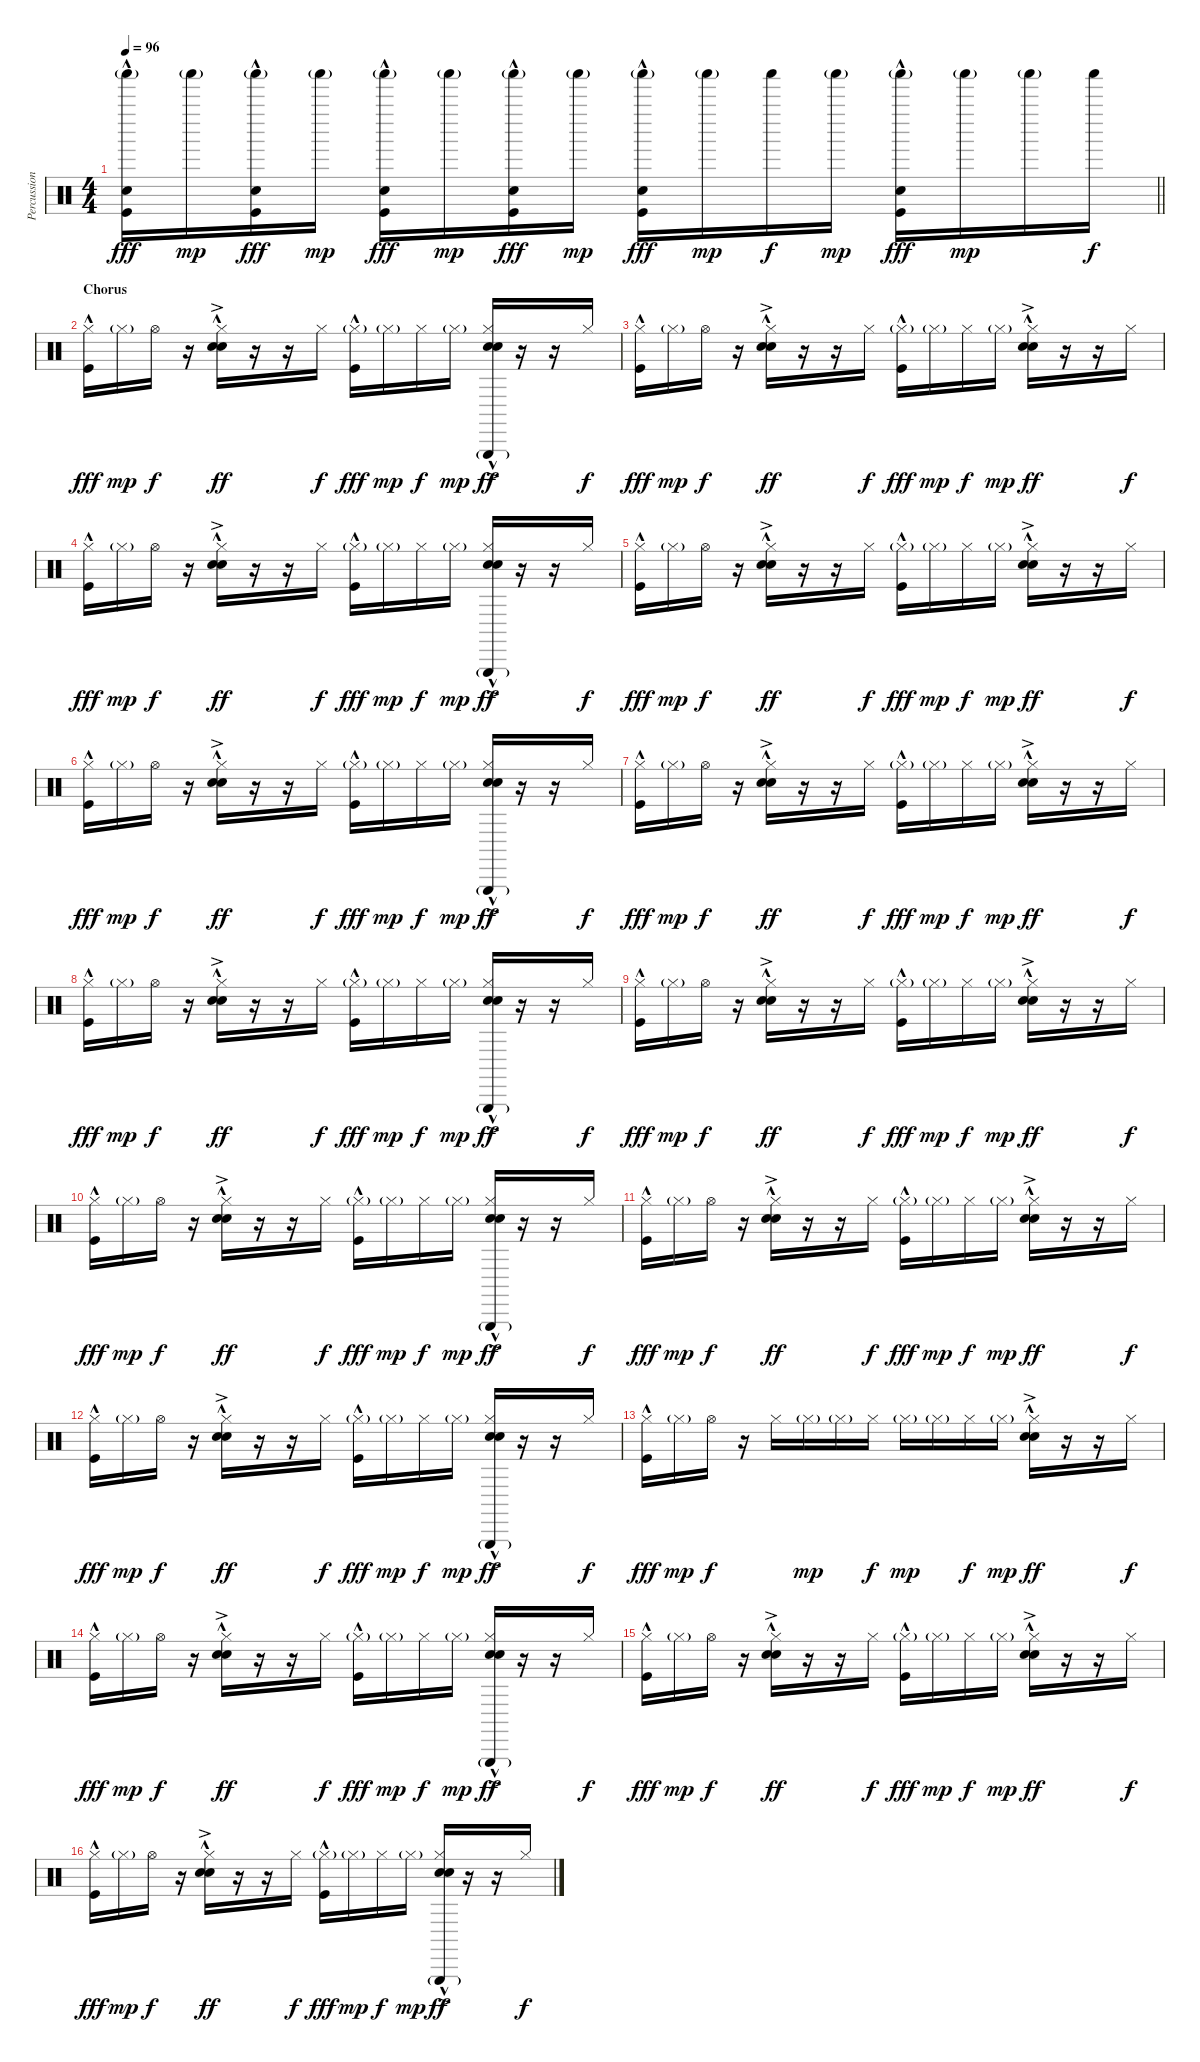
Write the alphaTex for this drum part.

\track ("Percussion" "Percussion") {instrument percussion}
\staff {score}
\articulation defaults
\ts (4 4)
\tempo 96
\clef neutral
\barLineRight lightlight
\ks c
("Shaker (hit)"{g} "Snare (hit) 2"{hac} "Kick (hit)"{hac}).16{dy fff} "Shaker (hit)"{g}.16{dy mp} ("Shaker (hit)"{g} "Snare (hit) 2"{hac} "Kick (hit)"{hac}).16{dy fff} "Shaker (hit)"{g}.16{dy mp} ("Shaker (hit)"{g} "Snare (hit) 2"{hac} "Kick (hit)"{hac}).16{dy fff} "Shaker (hit)"{g}.16{dy mp} ("Shaker (hit)"{g} "Snare (hit) 2"{hac} "Kick (hit)"{hac}).16{dy fff} "Shaker (hit)"{g}.16{dy mp} ("Shaker (hit)"{g} "Snare (hit) 2"{hac} "Kick (hit)"{hac}).16{dy fff} "Shaker (hit)"{g}.16{dy mp} "Shaker (hit)".16{dy f} "Shaker (hit)"{g}.16{dy mp} ("Shaker (hit)"{g} "Snare (hit) 2"{hac} "Kick (hit)"{hac}).16{dy fff} "Shaker (hit)"{g}.16{dy mp} "Shaker (hit)"{g}.16 "Shaker (hit)".16{dy f} |
\section ("" "Chorus")
("Hi-Hat (closed)" "Kick (hit)"{hac}).16{dy fff} "Hi-Hat (closed)"{g}.16{dy mp} "Hi-Hat (open)".16{dy f} r.16 ("Hi-Hat (closed)" "Hand Clap (hit)"{hac} "Snare (hit) 2"{ac}).16{dy ff} r.16 r.16 "Hi-Hat (closed)".16{dy f} ("Hi-Hat (closed)"{g} "Kick (hit)"{hac}).16{dy fff} "Hi-Hat (closed)"{g}.16{dy mp} "Hi-Hat (closed)".16{dy f} "Hi-Hat (closed)"{g}.16{dy mp} ("Triangle (hit)"{g} "Hi-Hat (closed)" "Hand Clap (hit)"{hac} "Snare (hit) 2"{ac}).16{dy ff} r.16 r.16 "Hi-Hat (closed)".16{dy f} |
("Hi-Hat (closed)" "Kick (hit)"{hac}).16{dy fff} "Hi-Hat (closed)"{g}.16{dy mp} "Hi-Hat (open)".16{dy f} r.16 ("Hi-Hat (closed)" "Hand Clap (hit)"{hac} "Snare (hit) 2"{ac}).16{dy ff} r.16 r.16 "Hi-Hat (closed)".16{dy f} ("Hi-Hat (closed)"{g} "Kick (hit)"{hac}).16{dy fff} "Hi-Hat (closed)"{g}.16{dy mp} "Hi-Hat (closed)".16{dy f} "Hi-Hat (closed)"{g}.16{dy mp} ("Hi-Hat (closed)" "Hand Clap (hit)"{hac} "Snare (hit) 2"{ac}).16{dy ff} r.16 r.16 "Hi-Hat (closed)".16{dy f} |
("Hi-Hat (closed)" "Kick (hit)"{hac}).16{dy fff} "Hi-Hat (closed)"{g}.16{dy mp} "Hi-Hat (open)".16{dy f} r.16 ("Hi-Hat (closed)" "Hand Clap (hit)"{hac} "Snare (hit) 2"{ac}).16{dy ff} r.16 r.16 "Hi-Hat (closed)".16{dy f} ("Hi-Hat (closed)"{g} "Kick (hit)"{hac}).16{dy fff} "Hi-Hat (closed)"{g}.16{dy mp} "Hi-Hat (closed)".16{dy f} "Hi-Hat (closed)"{g}.16{dy mp} ("Triangle (hit)"{g} "Hi-Hat (closed)" "Hand Clap (hit)"{hac} "Snare (hit) 2"{ac}).16{dy ff} r.16 r.16 "Hi-Hat (closed)".16{dy f} |
("Hi-Hat (closed)" "Kick (hit)"{hac}).16{dy fff} "Hi-Hat (closed)"{g}.16{dy mp} "Hi-Hat (open)".16{dy f} r.16 ("Hi-Hat (closed)" "Hand Clap (hit)"{hac} "Snare (hit) 2"{ac}).16{dy ff} r.16 r.16 "Hi-Hat (closed)".16{dy f} ("Hi-Hat (closed)"{g} "Kick (hit)"{hac}).16{dy fff} "Hi-Hat (closed)"{g}.16{dy mp} "Hi-Hat (closed)".16{dy f} "Hi-Hat (closed)"{g}.16{dy mp} ("Hi-Hat (closed)" "Hand Clap (hit)"{hac} "Snare (hit) 2"{ac}).16{dy ff} r.16 r.16 "Hi-Hat (closed)".16{dy f} |
("Hi-Hat (closed)" "Kick (hit)"{hac}).16{dy fff} "Hi-Hat (closed)"{g}.16{dy mp} "Hi-Hat (open)".16{dy f} r.16 ("Hi-Hat (closed)" "Hand Clap (hit)"{hac} "Snare (hit) 2"{ac}).16{dy ff} r.16 r.16 "Hi-Hat (closed)".16{dy f} ("Hi-Hat (closed)"{g} "Kick (hit)"{hac}).16{dy fff} "Hi-Hat (closed)"{g}.16{dy mp} "Hi-Hat (closed)".16{dy f} "Hi-Hat (closed)"{g}.16{dy mp} ("Triangle (hit)"{g} "Hi-Hat (closed)" "Hand Clap (hit)"{hac} "Snare (hit) 2"{ac}).16{dy ff} r.16 r.16 "Hi-Hat (closed)".16{dy f} |
("Hi-Hat (closed)" "Kick (hit)"{hac}).16{dy fff} "Hi-Hat (closed)"{g}.16{dy mp} "Hi-Hat (open)".16{dy f} r.16 ("Hi-Hat (closed)" "Hand Clap (hit)"{hac} "Snare (hit) 2"{ac}).16{dy ff} r.16 r.16 "Hi-Hat (closed)".16{dy f} ("Hi-Hat (closed)"{g} "Kick (hit)"{hac}).16{dy fff} "Hi-Hat (closed)"{g}.16{dy mp} "Hi-Hat (closed)".16{dy f} "Hi-Hat (closed)"{g}.16{dy mp} ("Hi-Hat (closed)" "Hand Clap (hit)"{hac} "Snare (hit) 2"{ac}).16{dy ff} r.16 r.16 "Hi-Hat (closed)".16{dy f} |
("Hi-Hat (closed)" "Kick (hit)"{hac}).16{dy fff} "Hi-Hat (closed)"{g}.16{dy mp} "Hi-Hat (open)".16{dy f} r.16 ("Hi-Hat (closed)" "Hand Clap (hit)"{hac} "Snare (hit) 2"{ac}).16{dy ff} r.16 r.16 "Hi-Hat (closed)".16{dy f} ("Hi-Hat (closed)"{g} "Kick (hit)"{hac}).16{dy fff} "Hi-Hat (closed)"{g}.16{dy mp} "Hi-Hat (closed)".16{dy f} "Hi-Hat (closed)"{g}.16{dy mp} ("Triangle (hit)"{g} "Hi-Hat (closed)" "Hand Clap (hit)"{hac} "Snare (hit) 2"{ac}).16{dy ff} r.16 r.16 "Hi-Hat (closed)".16{dy f} |
("Hi-Hat (closed)" "Kick (hit)"{hac}).16{dy fff} "Hi-Hat (closed)"{g}.16{dy mp} "Hi-Hat (open)".16{dy f} r.16 ("Hi-Hat (closed)" "Hand Clap (hit)"{hac} "Snare (hit) 2"{ac}).16{dy ff} r.16 r.16 "Hi-Hat (closed)".16{dy f} ("Hi-Hat (closed)"{g} "Kick (hit)"{hac}).16{dy fff} "Hi-Hat (closed)"{g}.16{dy mp} "Hi-Hat (closed)".16{dy f} "Hi-Hat (closed)"{g}.16{dy mp} ("Hi-Hat (closed)" "Hand Clap (hit)"{hac} "Snare (hit) 2"{ac}).16{dy ff} r.16 r.16 "Hi-Hat (closed)".16{dy f} |
("Hi-Hat (closed)" "Kick (hit)"{hac}).16{dy fff} "Hi-Hat (closed)"{g}.16{dy mp} "Hi-Hat (open)".16{dy f} r.16 ("Hi-Hat (closed)" "Hand Clap (hit)"{hac} "Snare (hit) 2"{ac}).16{dy ff} r.16 r.16 "Hi-Hat (closed)".16{dy f} ("Hi-Hat (closed)"{g} "Kick (hit)"{hac}).16{dy fff} "Hi-Hat (closed)"{g}.16{dy mp} "Hi-Hat (closed)".16{dy f} "Hi-Hat (closed)"{g}.16{dy mp} ("Triangle (hit)"{g} "Hi-Hat (closed)" "Hand Clap (hit)"{hac} "Snare (hit) 2"{ac}).16{dy ff} r.16 r.16 "Hi-Hat (closed)".16{dy f} |
("Hi-Hat (closed)" "Kick (hit)"{hac}).16{dy fff} "Hi-Hat (closed)"{g}.16{dy mp} "Hi-Hat (open)".16{dy f} r.16 ("Hi-Hat (closed)" "Hand Clap (hit)"{hac} "Snare (hit) 2"{ac}).16{dy ff} r.16 r.16 "Hi-Hat (closed)".16{dy f} ("Hi-Hat (closed)"{g} "Kick (hit)"{hac}).16{dy fff} "Hi-Hat (closed)"{g}.16{dy mp} "Hi-Hat (closed)".16{dy f} "Hi-Hat (closed)"{g}.16{dy mp} ("Hi-Hat (closed)" "Hand Clap (hit)"{hac} "Snare (hit) 2"{ac}).16{dy ff} r.16 r.16 "Hi-Hat (closed)".16{dy f} |
("Hi-Hat (closed)" "Kick (hit)"{hac}).16{dy fff} "Hi-Hat (closed)"{g}.16{dy mp} "Hi-Hat (open)".16{dy f} r.16 ("Hi-Hat (closed)" "Hand Clap (hit)"{hac} "Snare (hit) 2"{ac}).16{dy ff} r.16 r.16 "Hi-Hat (closed)".16{dy f} ("Hi-Hat (closed)"{g} "Kick (hit)"{hac}).16{dy fff} "Hi-Hat (closed)"{g}.16{dy mp} "Hi-Hat (closed)".16{dy f} "Hi-Hat (closed)"{g}.16{dy mp} ("Triangle (hit)"{g} "Hi-Hat (closed)" "Hand Clap (hit)"{hac} "Snare (hit) 2"{ac}).16{dy ff} r.16 r.16 "Hi-Hat (closed)".16{dy f} |
("Hi-Hat (closed)" "Kick (hit)"{hac}).16{dy fff} "Hi-Hat (closed)"{g}.16{dy mp} "Hi-Hat (open)".16{dy f} r.16 "Hi-Hat (closed)".16 "Hi-Hat (closed)"{g}.16{dy mp} "Hi-Hat (closed)"{g}.16 "Hi-Hat (closed)".16{dy f} "Hi-Hat (closed)"{g}.16{dy mp} "Hi-Hat (closed)"{g}.16 "Hi-Hat (closed)".16{dy f} "Hi-Hat (closed)"{g}.16{dy mp} ("Hi-Hat (closed)" "Hand Clap (hit)"{hac} "Snare (hit) 2"{ac}).16{dy ff} r.16 r.16 "Hi-Hat (closed)".16{dy f} |
("Hi-Hat (closed)" "Kick (hit)"{hac}).16{dy fff} "Hi-Hat (closed)"{g}.16{dy mp} "Hi-Hat (open)".16{dy f} r.16 ("Hi-Hat (closed)" "Hand Clap (hit)"{hac} "Snare (hit) 2"{ac}).16{dy ff} r.16 r.16 "Hi-Hat (closed)".16{dy f} ("Hi-Hat (closed)"{g} "Kick (hit)"{hac}).16{dy fff} "Hi-Hat (closed)"{g}.16{dy mp} "Hi-Hat (closed)".16{dy f} "Hi-Hat (closed)"{g}.16{dy mp} ("Triangle (hit)"{g} "Hi-Hat (closed)" "Hand Clap (hit)"{hac} "Snare (hit) 2"{ac}).16{dy ff} r.16 r.16 "Hi-Hat (closed)".16{dy f} |
("Hi-Hat (closed)" "Kick (hit)"{hac}).16{dy fff} "Hi-Hat (closed)"{g}.16{dy mp} "Hi-Hat (open)".16{dy f} r.16 ("Hi-Hat (closed)" "Hand Clap (hit)"{hac} "Snare (hit) 2"{ac}).16{dy ff} r.16 r.16 "Hi-Hat (closed)".16{dy f} ("Hi-Hat (closed)"{g} "Kick (hit)"{hac}).16{dy fff} "Hi-Hat (closed)"{g}.16{dy mp} "Hi-Hat (closed)".16{dy f} "Hi-Hat (closed)"{g}.16{dy mp} ("Hi-Hat (closed)" "Hand Clap (hit)"{hac} "Snare (hit) 2"{ac}).16{dy ff} r.16 r.16 "Hi-Hat (closed)".16{dy f} |
("Hi-Hat (closed)" "Kick (hit)"{hac}).16{dy fff} "Hi-Hat (closed)"{g}.16{dy mp} "Hi-Hat (open)".16{dy f} r.16 ("Hi-Hat (closed)" "Hand Clap (hit)"{hac} "Snare (hit) 2"{ac}).16{dy ff} r.16 r.16 "Hi-Hat (closed)".16{dy f} ("Hi-Hat (closed)"{g} "Kick (hit)"{hac}).16{dy fff} "Hi-Hat (closed)"{g}.16{dy mp} "Hi-Hat (closed)".16{dy f} "Hi-Hat (closed)"{g}.16{dy mp} ("Triangle (hit)"{g} "Hi-Hat (closed)" "Hand Clap (hit)"{hac} "Snare (hit) 2"{ac}).16{dy ff} r.16 r.16 "Hi-Hat (closed)".16{dy f}
